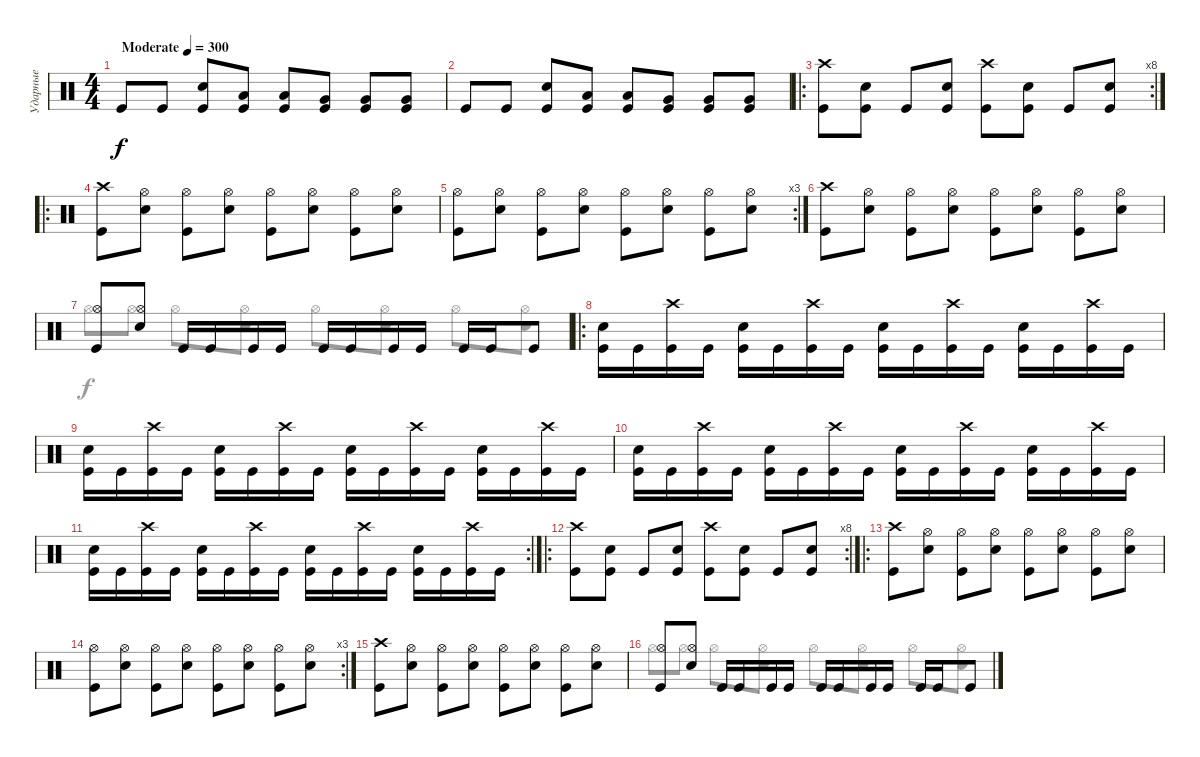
\track ("Ударные" "Ударные") {instrument percussion}
\staff {score}
\articulation defaults
\voice
\ts (4 4)
\tempo (300 "Moderate")
\clef neutral
\ks c "Kick (hit)".8{dy f} "Kick (hit)".8
("Electric Snare (hit)" "Kick (hit)").8 ("Low Tom (hit)" "Kick (hit)").8 ("Low Tom (hit)" "Kick (hit)").8 ("Very Low Tom (hit)" "Kick (hit)").8 ("Very Low Tom (hit)" "Kick (hit)").8 ("Very Low Tom (hit)" "Kick (hit)").8 |
"Kick (hit)".8 "Kick (hit)".8 ("Electric Snare (hit)" "Kick (hit)").8 ("Low Tom (hit)" "Kick (hit)").8 ("Low Tom (hit)" "Kick (hit)").8 ("Very Low Tom (hit)" "Kick (hit)").8 ("Very Low Tom (hit)" "Kick (hit)").8 ("Very Low Tom (hit)" "Kick (hit)").8 |
\ro
\rc 8
("Crash high (hit)" "Kick (hit)").8 ("Electric Snare (hit)" "Kick (hit)").8 "Kick (hit)".8 ("Electric Snare (hit)" "Kick (hit)").8 ("Crash high (hit)" "Kick (hit)").8 ("Electric Snare (hit)" "Kick (hit)").8 "Kick (hit)".8 ("Electric Snare (hit)" "Kick (hit)").8 |
\ro
("Crash high (hit)" "Kick (hit)").8 ("Hi-Hat (open)" "Electric Snare (hit)").8 ("Hi-Hat (open)" "Kick (hit)").8 ("Hi-Hat (open)" "Electric Snare (hit)").8 ("Hi-Hat (open)" "Kick (hit)").8 ("Hi-Hat (open)" "Electric Snare (hit)").8 ("Hi-Hat (open)" "Kick (hit)").8 ("Hi-Hat (open)" "Electric Snare (hit)").8 |
\rc 3
("Hi-Hat (open)" "Kick (hit)").8 ("Hi-Hat (open)" "Electric Snare (hit)").8 ("Hi-Hat (open)" "Kick (hit)").8 ("Hi-Hat (open)" "Electric Snare (hit)").8 ("Hi-Hat (open)" "Kick (hit)").8 ("Hi-Hat (open)" "Electric Snare (hit)").8 ("Hi-Hat (open)" "Kick (hit)").8 ("Hi-Hat (open)" "Electric Snare (hit)").8 |
("Crash high (hit)" "Kick (hit)").8 ("Hi-Hat (open)" "Electric Snare (hit)").8 ("Hi-Hat (open)" "Kick (hit)").8 ("Hi-Hat (open)" "Electric Snare (hit)").8 ("Hi-Hat (open)" "Kick (hit)").8 ("Hi-Hat (open)" "Electric Snare (hit)").8 ("Hi-Hat (open)" "Kick (hit)").8 ("Hi-Hat (open)" "Electric Snare (hit)").8 |
("Hi-Hat (open)" "Kick (hit)").8 ("Hi-Hat (open)" "Electric Snare (hit)").8 "Kick (hit)".16 "Kick (hit)".16 "Kick (hit)".16 "Kick (hit)".16 "Kick (hit)".16 "Kick (hit)".16 "Kick (hit)".16 "Kick (hit)".16 "Kick (hit)".16 "Kick (hit)".16 "Kick (hit)".8 |
\ro
("Electric Snare (hit)" "Kick (hit)").16 "Kick (hit)".16 ("Crash high (hit)" "Kick (hit)").16 "Kick (hit)".16 ("Electric Snare (hit)" "Kick (hit)").16 "Kick (hit)".16 ("Crash high (hit)" "Kick (hit)").16 "Kick (hit)".16 ("Electric Snare (hit)" "Kick (hit)").16 "Kick (hit)".16 ("Crash high (hit)" "Kick (hit)").16 "Kick (hit)".16 ("Electric Snare (hit)" "Kick (hit)").16 "Kick (hit)".16 ("Crash high (hit)" "Kick (hit)").16 "Kick (hit)".16 |
("Electric Snare (hit)" "Kick (hit)").16 "Kick (hit)".16 ("Crash high (hit)" "Kick (hit)").16 "Kick (hit)".16 ("Electric Snare (hit)" "Kick (hit)").16 "Kick (hit)".16 ("Crash high (hit)" "Kick (hit)").16 "Kick (hit)".16 ("Electric Snare (hit)" "Kick (hit)").16 "Kick (hit)".16 ("Crash high (hit)" "Kick (hit)").16 "Kick (hit)".16 ("Electric Snare (hit)" "Kick (hit)").16 "Kick (hit)".16 ("Crash high (hit)" "Kick (hit)").16 "Kick (hit)".16 |
("Electric Snare (hit)" "Kick (hit)").16 "Kick (hit)".16 ("Crash high (hit)" "Kick (hit)").16 "Kick (hit)".16 ("Electric Snare (hit)" "Kick (hit)").16 "Kick (hit)".16 ("Crash high (hit)" "Kick (hit)").16 "Kick (hit)".16 ("Electric Snare (hit)" "Kick (hit)").16 "Kick (hit)".16 ("Crash high (hit)" "Kick (hit)").16 "Kick (hit)".16 ("Electric Snare (hit)" "Kick (hit)").16 "Kick (hit)".16 ("Crash high (hit)" "Kick (hit)").16 "Kick (hit)".16 |
\rc 2
("Electric Snare (hit)" "Kick (hit)").16 "Kick (hit)".16 ("Crash high (hit)" "Kick (hit)").16 "Kick (hit)".16 ("Electric Snare (hit)" "Kick (hit)").16 "Kick (hit)".16 ("Crash high (hit)" "Kick (hit)").16 "Kick (hit)".16 ("Electric Snare (hit)" "Kick (hit)").16 "Kick (hit)".16 ("Crash high (hit)" "Kick (hit)").16 "Kick (hit)".16 ("Electric Snare (hit)" "Kick (hit)").16 "Kick (hit)".16 ("Crash high (hit)" "Kick (hit)").16 "Kick (hit)".16 |
\ro
\rc 8
("Crash high (hit)" "Kick (hit)").8 ("Electric Snare (hit)" "Kick (hit)").8 "Kick (hit)".8 ("Electric Snare (hit)" "Kick (hit)").8 ("Crash high (hit)" "Kick (hit)").8 ("Electric Snare (hit)" "Kick (hit)").8 "Kick (hit)".8 ("Electric Snare (hit)" "Kick (hit)").8 |
\ro
("Crash high (hit)" "Kick (hit)").8 ("Hi-Hat (open)" "Electric Snare (hit)").8 ("Hi-Hat (open)" "Kick (hit)").8 ("Hi-Hat (open)" "Electric Snare (hit)").8 ("Hi-Hat (open)" "Kick (hit)").8 ("Hi-Hat (open)" "Electric Snare (hit)").8 ("Hi-Hat (open)" "Kick (hit)").8 ("Hi-Hat (open)" "Electric Snare (hit)").8 |
\rc 3
("Hi-Hat (open)" "Kick (hit)").8 ("Hi-Hat (open)" "Electric Snare (hit)").8 ("Hi-Hat (open)" "Kick (hit)").8 ("Hi-Hat (open)" "Electric Snare (hit)").8 ("Hi-Hat (open)" "Kick (hit)").8 ("Hi-Hat (open)" "Electric Snare (hit)").8 ("Hi-Hat (open)" "Kick (hit)").8 ("Hi-Hat (open)" "Electric Snare (hit)").8 |
("Crash high (hit)" "Kick (hit)").8 ("Hi-Hat (open)" "Electric Snare (hit)").8 ("Hi-Hat (open)" "Kick (hit)").8 ("Hi-Hat (open)" "Electric Snare (hit)").8 ("Hi-Hat (open)" "Kick (hit)").8 ("Hi-Hat (open)" "Electric Snare (hit)").8 ("Hi-Hat (open)" "Kick (hit)").8 ("Hi-Hat (open)" "Electric Snare (hit)").8 |
("Hi-Hat (open)" "Kick (hit)").8 ("Hi-Hat (open)" "Electric Snare (hit)").8 "Kick (hit)".16 "Kick (hit)".16 "Kick (hit)".16 "Kick (hit)".16 "Kick (hit)".16 "Kick (hit)".16 "Kick (hit)".16 "Kick (hit)".16 "Kick (hit)".16 "Kick (hit)".16 "Kick (hit)".8
\voice
\clef neutral
\ottava regular
\simile none
\ks c
|
|
|
|
|
|
"Hi-Hat (open)".8 "Hi-Hat (open)".8 "Hi-Hat (open)".8 ("Hi-Hat (open)" "Electric Snare (hit)").8 "Hi-Hat (open)".8 ("Hi-Hat (open)" "Electric Snare (hit)").8 "Hi-Hat (open)".8 ("Hi-Hat (open)" "Electric Snare (hit)").8 |
|
|
|
|
|
|
|
|
"Hi-Hat (open)".8 "Hi-Hat (open)".8 "Hi-Hat (open)".8 ("Hi-Hat (open)" "Electric Snare (hit)").8 "Hi-Hat (open)".8 ("Hi-Hat (open)" "Electric Snare (hit)").8 "Hi-Hat (open)".8 ("Hi-Hat (open)" "Electric Snare (hit)").8
